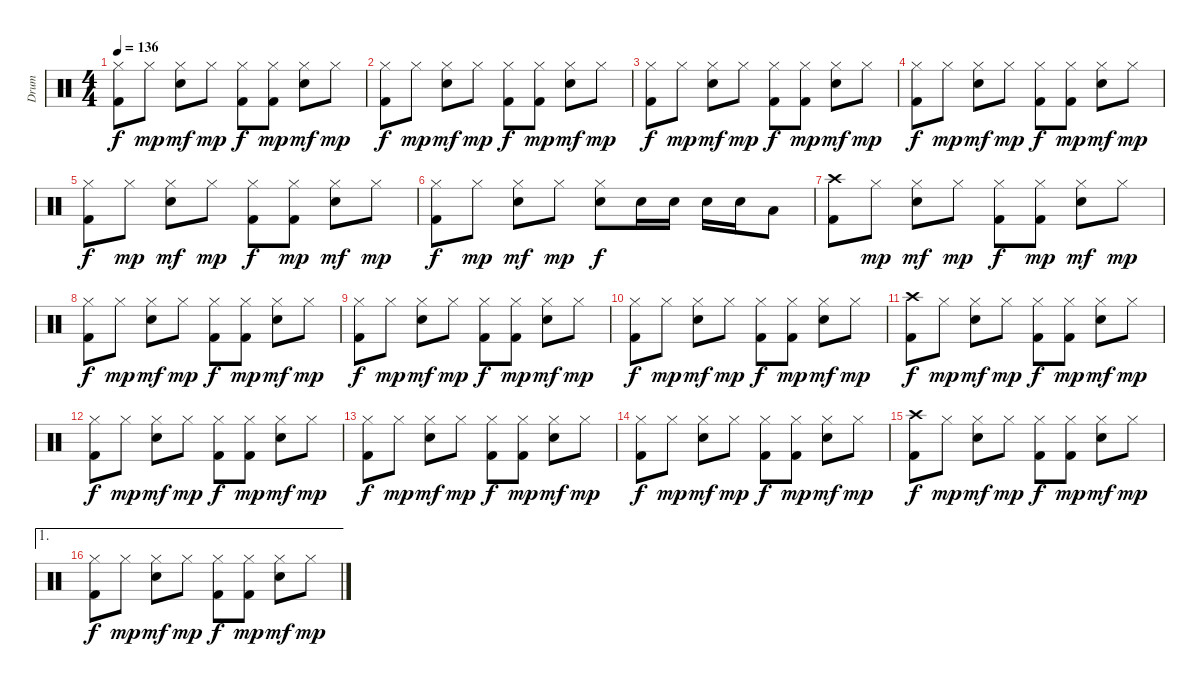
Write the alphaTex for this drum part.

\track ("Drum" "Drum") {instrument percussion}
\staff {score}
\articulation defaults
\ts (4 4)
\tempo 136
\clef neutral
\ks c
("Hi-Hat (closed)" "Kick (hit) 2").8{dy f} "Hi-Hat (closed)".8{dy mp} ("Hi-Hat (closed)" "Snare (hit) 2").8{dy mf} "Hi-Hat (closed)".8{dy mp} ("Hi-Hat (closed)" "Kick (hit) 2").8{dy f} ("Hi-Hat (closed)" "Kick (hit) 2").8{dy mp} ("Hi-Hat (closed)" "Snare (hit) 2").8{dy mf} "Hi-Hat (closed)".8{dy mp} |
("Hi-Hat (closed)" "Kick (hit) 2").8{dy f} "Hi-Hat (closed)".8{dy mp} ("Hi-Hat (closed)" "Snare (hit) 2").8{dy mf} "Hi-Hat (closed)".8{dy mp} ("Hi-Hat (closed)" "Kick (hit) 2").8{dy f} ("Hi-Hat (closed)" "Kick (hit) 2").8{dy mp} ("Hi-Hat (closed)" "Snare (hit) 2").8{dy mf} "Hi-Hat (closed)".8{dy mp} |
("Hi-Hat (closed)" "Kick (hit) 2").8{dy f} "Hi-Hat (closed)".8{dy mp} ("Hi-Hat (closed)" "Snare (hit) 2").8{dy mf} "Hi-Hat (closed)".8{dy mp} ("Hi-Hat (closed)" "Kick (hit) 2").8{dy f} ("Hi-Hat (closed)" "Kick (hit) 2").8{dy mp} ("Hi-Hat (closed)" "Snare (hit) 2").8{dy mf} "Hi-Hat (closed)".8{dy mp} |
("Hi-Hat (closed)" "Kick (hit) 2").8{dy f} "Hi-Hat (closed)".8{dy mp} ("Hi-Hat (closed)" "Snare (hit) 2").8{dy mf} "Hi-Hat (closed)".8{dy mp} ("Hi-Hat (closed)" "Kick (hit) 2").8{dy f} ("Hi-Hat (closed)" "Kick (hit) 2").8{dy mp} ("Hi-Hat (closed)" "Snare (hit) 2").8{dy mf} "Hi-Hat (closed)".8{dy mp} |
("Hi-Hat (closed)" "Kick (hit) 2").8{dy f} "Hi-Hat (closed)".8{dy mp} ("Hi-Hat (closed)" "Snare (hit) 2").8{dy mf} "Hi-Hat (closed)".8{dy mp} ("Hi-Hat (closed)" "Kick (hit) 2").8{dy f} ("Hi-Hat (closed)" "Kick (hit) 2").8{dy mp} ("Hi-Hat (closed)" "Snare (hit) 2").8{dy mf} "Hi-Hat (closed)".8{dy mp} |
("Hi-Hat (closed)" "Kick (hit) 2").8{dy f} "Hi-Hat (closed)".8{dy mp} ("Hi-Hat (closed)" "Snare (hit) 2").8{dy mf} "Hi-Hat (closed)".8{dy mp} ("Hi-Hat (closed)" "Snare (hit) 2").8{dy f} "Snare (hit) 2".16 "Snare (hit) 2".16 "Snare (hit) 2".16 "Snare (hit) 2".16 "Low Tom (hit)".8 |
("Crash high (hit)" "Kick (hit) 2").8 "Hi-Hat (closed)".8{dy mp} ("Hi-Hat (closed)" "Snare (hit) 2").8{dy mf} "Hi-Hat (closed)".8{dy mp} ("Hi-Hat (closed)" "Kick (hit) 2").8{dy f} ("Hi-Hat (closed)" "Kick (hit) 2").8{dy mp} ("Hi-Hat (closed)" "Snare (hit) 2").8{dy mf} "Hi-Hat (closed)".8{dy mp} |
("Hi-Hat (closed)" "Kick (hit) 2").8{dy f} "Hi-Hat (closed)".8{dy mp} ("Hi-Hat (closed)" "Snare (hit) 2").8{dy mf} "Hi-Hat (closed)".8{dy mp} ("Hi-Hat (closed)" "Kick (hit) 2").8{dy f} ("Hi-Hat (closed)" "Kick (hit) 2").8{dy mp} ("Hi-Hat (closed)" "Snare (hit) 2").8{dy mf} "Hi-Hat (closed)".8{dy mp} |
("Hi-Hat (closed)" "Kick (hit) 2").8{dy f} "Hi-Hat (closed)".8{dy mp} ("Hi-Hat (closed)" "Snare (hit) 2").8{dy mf} "Hi-Hat (closed)".8{dy mp} ("Hi-Hat (closed)" "Kick (hit) 2").8{dy f} ("Hi-Hat (closed)" "Kick (hit) 2").8{dy mp} ("Hi-Hat (closed)" "Snare (hit) 2").8{dy mf} "Hi-Hat (closed)".8{dy mp} |
("Hi-Hat (closed)" "Kick (hit) 2").8{dy f} "Hi-Hat (closed)".8{dy mp} ("Hi-Hat (closed)" "Snare (hit) 2").8{dy mf} "Hi-Hat (closed)".8{dy mp} ("Hi-Hat (closed)" "Kick (hit) 2").8{dy f} ("Hi-Hat (closed)" "Kick (hit) 2").8{dy mp} ("Hi-Hat (closed)" "Snare (hit) 2").8{dy mf} "Hi-Hat (closed)".8{dy mp} |
("Crash high (hit)" "Kick (hit) 2").8{dy f} "Hi-Hat (closed)".8{dy mp} ("Hi-Hat (closed)" "Snare (hit) 2").8{dy mf} "Hi-Hat (closed)".8{dy mp} ("Hi-Hat (closed)" "Kick (hit) 2").8{dy f} ("Hi-Hat (closed)" "Kick (hit) 2").8{dy mp} ("Hi-Hat (closed)" "Snare (hit) 2").8{dy mf} "Hi-Hat (closed)".8{dy mp} |
("Hi-Hat (closed)" "Kick (hit) 2").8{dy f} "Hi-Hat (closed)".8{dy mp} ("Hi-Hat (closed)" "Snare (hit) 2").8{dy mf} "Hi-Hat (closed)".8{dy mp} ("Hi-Hat (closed)" "Kick (hit) 2").8{dy f} ("Hi-Hat (closed)" "Kick (hit) 2").8{dy mp} ("Hi-Hat (closed)" "Snare (hit) 2").8{dy mf} "Hi-Hat (closed)".8{dy mp} |
("Hi-Hat (closed)" "Kick (hit) 2").8{dy f} "Hi-Hat (closed)".8{dy mp} ("Hi-Hat (closed)" "Snare (hit) 2").8{dy mf} "Hi-Hat (closed)".8{dy mp} ("Hi-Hat (closed)" "Kick (hit) 2").8{dy f} ("Hi-Hat (closed)" "Kick (hit) 2").8{dy mp} ("Hi-Hat (closed)" "Snare (hit) 2").8{dy mf} "Hi-Hat (closed)".8{dy mp} |
("Hi-Hat (closed)" "Kick (hit) 2").8{dy f} "Hi-Hat (closed)".8{dy mp} ("Hi-Hat (closed)" "Snare (hit) 2").8{dy mf} "Hi-Hat (closed)".8{dy mp} ("Hi-Hat (closed)" "Kick (hit) 2").8{dy f} ("Hi-Hat (closed)" "Kick (hit) 2").8{dy mp} ("Hi-Hat (closed)" "Snare (hit) 2").8{dy mf} "Hi-Hat (closed)".8{dy mp} |
("Crash high (hit)" "Kick (hit) 2").8{dy f} "Hi-Hat (closed)".8{dy mp} ("Hi-Hat (closed)" "Snare (hit) 2").8{dy mf} "Hi-Hat (closed)".8{dy mp} ("Hi-Hat (closed)" "Kick (hit) 2").8{dy f} ("Hi-Hat (closed)" "Kick (hit) 2").8{dy mp} ("Hi-Hat (closed)" "Snare (hit) 2").8{dy mf} "Hi-Hat (closed)".8{dy mp} |
\ae 1
("Hi-Hat (closed)" "Kick (hit) 2").8{dy f} "Hi-Hat (closed)".8{dy mp} ("Hi-Hat (closed)" "Snare (hit) 2").8{dy mf} "Hi-Hat (closed)".8{dy mp} ("Hi-Hat (closed)" "Kick (hit) 2").8{dy f} ("Hi-Hat (closed)" "Kick (hit) 2").8{dy mp} ("Hi-Hat (closed)" "Snare (hit) 2").8{dy mf} "Hi-Hat (closed)".8{dy mp}
